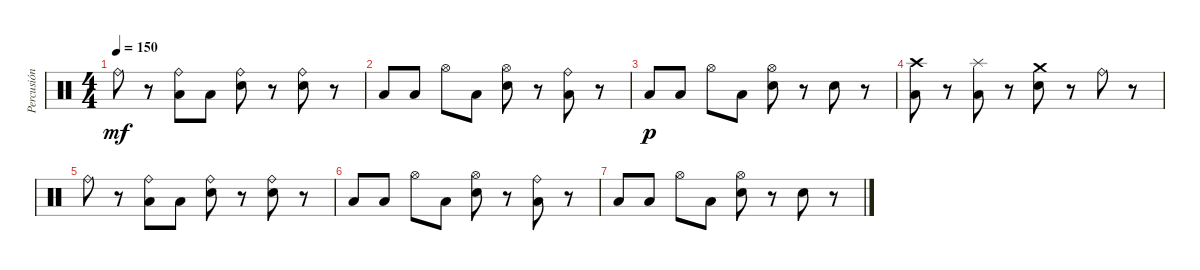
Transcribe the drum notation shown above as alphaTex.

\track ("Percusión" "Percusión") {instrument percussion}
\staff {score}
\articulation defaults
\ts (4 4)
\tempo 150
\clef neutral
\ks c "Ride (bell)".8{dy mf}
r.8 ("Ride (bell)" "Low Tom (hit)").8 "Low Tom (hit)".8 ("Ride (bell)" "Snare (hit) 2").8 r.8 ("Ride (bell)" "Snare (hit) 2").8 r.8 |
"Low Tom (hit)".8 "Low Tom (hit)".8 "Hi-Hat (open)".8 "Low Tom (hit)".8 ("Hi-Hat (open)" "Snare (hit) 2").8 r.8 ("Ride (bell)" "Low Tom (hit)").8 r.8 |
"Low Tom (hit)".8{dy p} "Low Tom (hit)".8 "Hi-Hat (open)".8 "Low Tom (hit)".8 ("Hi-Hat (open)" "Snare (hit) 2").8 r.8 "Snare (hit) 2".8 r.8 |
("Crash high (hit)" "Low Tom (hit)").8 r.8 ("Splash (hit)" "Low Tom (hit)").8 r.8 ("Crash medium (hit)" "Snare (hit) 2").8 r.8 "Ride (bell)".8 r.8 |
"Ride (bell)".8 r.8 ("Ride (bell)" "Low Tom (hit)").8 "Low Tom (hit)".8 ("Ride (bell)" "Snare (hit) 2").8 r.8 ("Ride (bell)" "Snare (hit) 2").8 r.8 |
"Low Tom (hit)".8 "Low Tom (hit)".8 "Hi-Hat (open)".8 "Low Tom (hit)".8 ("Hi-Hat (open)" "Snare (hit) 2").8 r.8 ("Ride (bell)" "Low Tom (hit)").8 r.8 |
"Low Tom (hit)".8 "Low Tom (hit)".8 "Hi-Hat (open)".8 "Low Tom (hit)".8 ("Hi-Hat (open)" "Snare (hit) 2").8 r.8 "Snare (hit) 2".8 r.8
